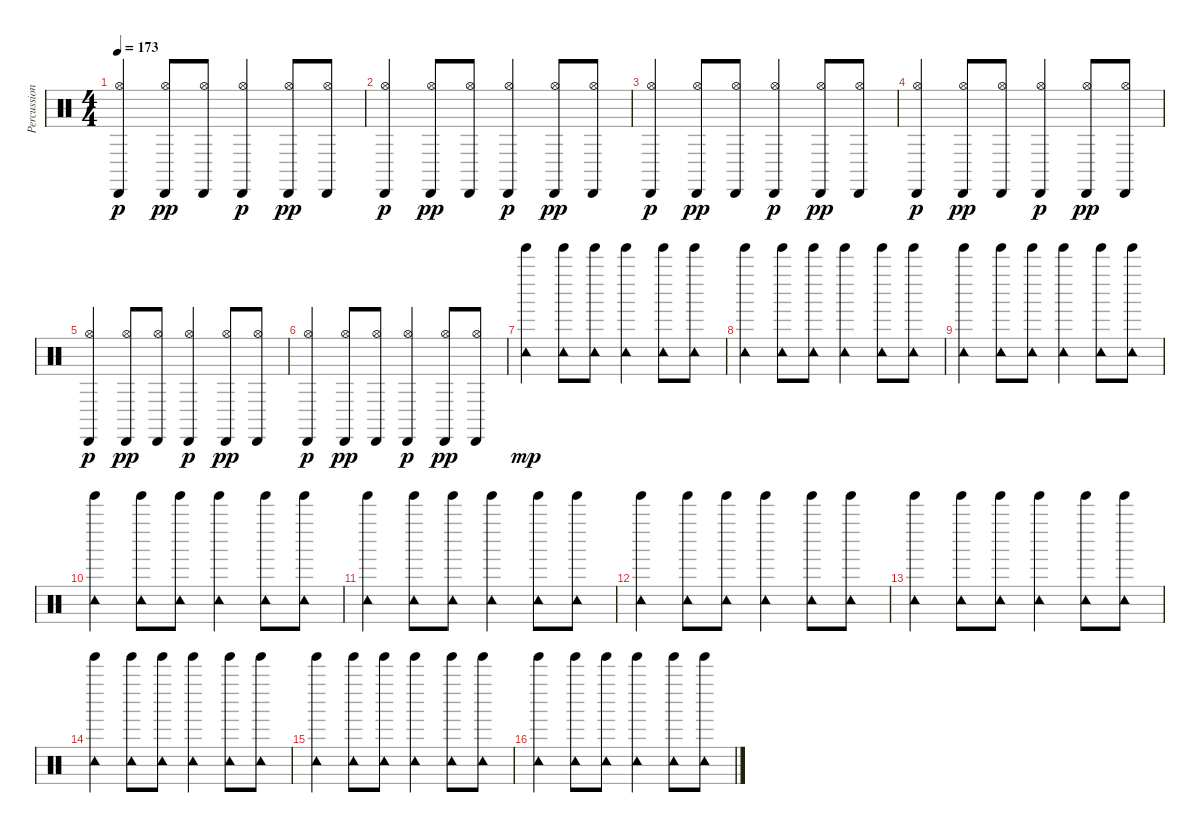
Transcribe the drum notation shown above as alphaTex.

\track ("Percussion" "Percussion") {instrument percussion}
\staff {score}
\articulation defaults
\ts (4 4)
\tempo 173
\clef neutral
\ks c
("Cabasa (hit)" "Hi-Hat (open)").4{dy p} ("Cabasa (hit)" "Hi-Hat (open)").8{dy pp} ("Cabasa (hit)" "Hi-Hat (open)").8 ("Cabasa (hit)" "Hi-Hat (open)").4{dy p} ("Cabasa (hit)" "Hi-Hat (open)").8{dy pp} ("Cabasa (hit)" "Hi-Hat (open)").8 |
("Cabasa (hit)" "Hi-Hat (open)").4{dy p} ("Cabasa (hit)" "Hi-Hat (open)").8{dy pp} ("Cabasa (hit)" "Hi-Hat (open)").8 ("Cabasa (hit)" "Hi-Hat (open)").4{dy p} ("Cabasa (hit)" "Hi-Hat (open)").8{dy pp} ("Cabasa (hit)" "Hi-Hat (open)").8 |
("Cabasa (hit)" "Hi-Hat (open)").4{dy p} ("Cabasa (hit)" "Hi-Hat (open)").8{dy pp} ("Cabasa (hit)" "Hi-Hat (open)").8 ("Cabasa (hit)" "Hi-Hat (open)").4{dy p} ("Cabasa (hit)" "Hi-Hat (open)").8{dy pp} ("Cabasa (hit)" "Hi-Hat (open)").8 |
("Cabasa (hit)" "Hi-Hat (open)").4{dy p} ("Cabasa (hit)" "Hi-Hat (open)").8{dy pp} ("Cabasa (hit)" "Hi-Hat (open)").8 ("Cabasa (hit)" "Hi-Hat (open)").4{dy p} ("Cabasa (hit)" "Hi-Hat (open)").8{dy pp} ("Cabasa (hit)" "Hi-Hat (open)").8 |
("Cabasa (hit)" "Hi-Hat (open)").4{dy p} ("Cabasa (hit)" "Hi-Hat (open)").8{dy pp} ("Cabasa (hit)" "Hi-Hat (open)").8 ("Cabasa (hit)" "Hi-Hat (open)").4{dy p} ("Cabasa (hit)" "Hi-Hat (open)").8{dy pp} ("Cabasa (hit)" "Hi-Hat (open)").8 |
("Cabasa (hit)" "Hi-Hat (open)").4{dy p} ("Cabasa (hit)" "Hi-Hat (open)").8{dy pp} ("Cabasa (hit)" "Hi-Hat (open)").8 ("Cabasa (hit)" "Hi-Hat (open)").4{dy p} ("Cabasa (hit)" "Hi-Hat (open)").8{dy pp} ("Cabasa (hit)" "Hi-Hat (open)").8 |
("Tambourine (hit)" "Tinkle Bell (hit)").4{dy mp} ("Tambourine (hit)" "Tinkle Bell (hit)").8 ("Tambourine (hit)" "Tinkle Bell (hit)").8 ("Tambourine (hit)" "Tinkle Bell (hit)").4 ("Tambourine (hit)" "Tinkle Bell (hit)").8 ("Tambourine (hit)" "Tinkle Bell (hit)").8 |
("Tambourine (hit)" "Tinkle Bell (hit)").4 ("Tambourine (hit)" "Tinkle Bell (hit)").8 ("Tambourine (hit)" "Tinkle Bell (hit)").8 ("Tambourine (hit)" "Tinkle Bell (hit)").4 ("Tambourine (hit)" "Tinkle Bell (hit)").8 ("Tambourine (hit)" "Tinkle Bell (hit)").8 |
("Tambourine (hit)" "Tinkle Bell (hit)").4 ("Tambourine (hit)" "Tinkle Bell (hit)").8 ("Tambourine (hit)" "Tinkle Bell (hit)").8 ("Tambourine (hit)" "Tinkle Bell (hit)").4 ("Tambourine (hit)" "Tinkle Bell (hit)").8 ("Tambourine (hit)" "Tinkle Bell (hit)").8 |
("Tambourine (hit)" "Tinkle Bell (hit)").4 ("Tambourine (hit)" "Tinkle Bell (hit)").8 ("Tambourine (hit)" "Tinkle Bell (hit)").8 ("Tambourine (hit)" "Tinkle Bell (hit)").4 ("Tambourine (hit)" "Tinkle Bell (hit)").8 ("Tambourine (hit)" "Tinkle Bell (hit)").8 |
("Tambourine (hit)" "Tinkle Bell (hit)").4 ("Tambourine (hit)" "Tinkle Bell (hit)").8 ("Tambourine (hit)" "Tinkle Bell (hit)").8 ("Tambourine (hit)" "Tinkle Bell (hit)").4 ("Tambourine (hit)" "Tinkle Bell (hit)").8 ("Tambourine (hit)" "Tinkle Bell (hit)").8 |
("Tambourine (hit)" "Tinkle Bell (hit)").4 ("Tambourine (hit)" "Tinkle Bell (hit)").8 ("Tambourine (hit)" "Tinkle Bell (hit)").8 ("Tambourine (hit)" "Tinkle Bell (hit)").4 ("Tambourine (hit)" "Tinkle Bell (hit)").8 ("Tambourine (hit)" "Tinkle Bell (hit)").8 |
("Tambourine (hit)" "Tinkle Bell (hit)").4 ("Tambourine (hit)" "Tinkle Bell (hit)").8 ("Tambourine (hit)" "Tinkle Bell (hit)").8 ("Tambourine (hit)" "Tinkle Bell (hit)").4 ("Tambourine (hit)" "Tinkle Bell (hit)").8 ("Tambourine (hit)" "Tinkle Bell (hit)").8 |
("Tambourine (hit)" "Tinkle Bell (hit)").4 ("Tambourine (hit)" "Tinkle Bell (hit)").8 ("Tambourine (hit)" "Tinkle Bell (hit)").8 ("Tambourine (hit)" "Tinkle Bell (hit)").4 ("Tambourine (hit)" "Tinkle Bell (hit)").8 ("Tambourine (hit)" "Tinkle Bell (hit)").8 |
("Tambourine (hit)" "Tinkle Bell (hit)").4 ("Tambourine (hit)" "Tinkle Bell (hit)").8 ("Tambourine (hit)" "Tinkle Bell (hit)").8 ("Tambourine (hit)" "Tinkle Bell (hit)").4 ("Tambourine (hit)" "Tinkle Bell (hit)").8 ("Tambourine (hit)" "Tinkle Bell (hit)").8 |
("Tambourine (hit)" "Tinkle Bell (hit)").4 ("Tambourine (hit)" "Tinkle Bell (hit)").8 ("Tambourine (hit)" "Tinkle Bell (hit)").8 ("Tambourine (hit)" "Tinkle Bell (hit)").4 ("Tambourine (hit)" "Tinkle Bell (hit)").8 ("Tambourine (hit)" "Tinkle Bell (hit)").8
